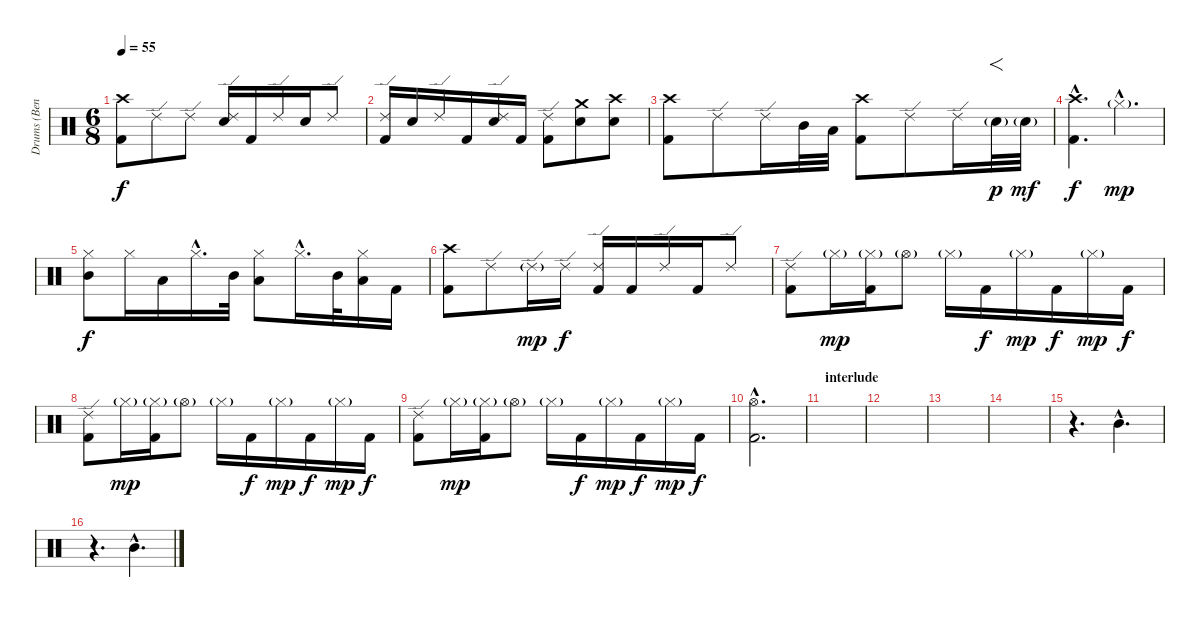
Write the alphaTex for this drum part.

\track ("Drums (Bengerg)" "Drums (Ben") {instrument percussion}
\staff {score}
\articulation defaults
\ts (6 8)
\tempo 55
\clef neutral
\ks c
("Crash high (hit)" "Kick (hit) 2").8{dy f} "Ride (edge) 2".8 "Ride (edge) 2".8 ("Ride (edge) 2" "Electric Snare (hit)").16 "Kick (hit) 2".16 "Ride (edge) 2".16 "Electric Snare (hit)".16 "Ride (edge) 2".8 |
("Ride (edge) 2" "Kick (hit) 2").16 "Electric Snare (hit)".16 "Ride (edge) 2".16 "Kick (hit) 2".16 ("Ride (edge) 2" "Electric Snare (hit)").16 "Kick (hit) 2".16 ("Ride (edge) 2" "Kick (hit) 2").8 ("Crash medium (hit)" "Electric Snare (hit)").8 ("Crash high (hit)" "Electric Snare (hit)").8 |
("Crash high (hit)" "Kick (hit) 2").8 "Ride (edge) 2".8 "Ride (edge) 2".16 "Mid Tom (hit)".32 "Low Tom (hit)".32 ("Crash high (hit)" "Kick (hit) 2").8 "Ride (edge) 2".8 "Ride (edge) 2".16 "Electric Snare (hit)"{g}.32{f dy p} "Electric Snare (hit)"{g}.32{dy mf} |
("Crash high (hit)"{hac} "Kick (hit) 2"{hac}).4{d dy f} "Hi-Hat (closed)"{g hac}.4{d dy mp} |
("Hi-Hat (closed)" "Mid Tom (hit)").8{dy f} "Hi-Hat (closed)".16 "Low Tom (hit)".16 "Hi-Hat (closed)"{hac}.16{d} "Mid Tom (hit)".32 ("Hi-Hat (closed)" "Low Tom (hit)").8 "Hi-Hat (closed)"{hac}.16{d} "Mid Tom (hit)".32 ("Hi-Hat (closed)" "Low Tom (hit)").16 "Kick (hit) 2".16 |
("Crash high (hit)" "Kick (hit) 2").8 "Ride (edge) 2".8 "Ride (edge) 2"{g}.16{dy mp} "Ride (edge) 2".16{dy f} ("Ride (edge) 2" "Kick (hit) 2").16 "Kick (hit) 2".16 "Ride (edge) 2".16 "Kick (hit) 2".16 "Ride (edge) 2".8 |
("Ride (edge) 2" "Kick (hit) 2").8 "Hi-Hat (closed)"{g}.16{dy mp} ("Hi-Hat (closed)"{g} "Kick (hit) 2").16 "Hi-Hat (open)"{g}.8 "Hi-Hat (closed)"{g}.16 "Kick (hit) 2".16{dy f} "Hi-Hat (closed)"{g}.16{dy mp} "Kick (hit) 2".16{dy f} "Hi-Hat (closed)"{g}.16{dy mp} "Kick (hit) 2".16{dy f} |
("Ride (edge) 2" "Kick (hit) 2").8 "Hi-Hat (closed)"{g}.16{dy mp} ("Hi-Hat (closed)"{g} "Kick (hit) 2").16 "Hi-Hat (open)"{g}.8 "Hi-Hat (closed)"{g}.16 "Kick (hit) 2".16{dy f} "Hi-Hat (closed)"{g}.16{dy mp} "Kick (hit) 2".16{dy f} "Hi-Hat (closed)"{g}.16{dy mp} "Kick (hit) 2".16{dy f} |
("Ride (edge) 2" "Kick (hit) 2").8 "Hi-Hat (closed)"{g}.16{dy mp} ("Hi-Hat (closed)"{g} "Kick (hit) 2").16 "Hi-Hat (open)"{g}.8 "Hi-Hat (closed)"{g}.16 "Kick (hit) 2".16{dy f} "Hi-Hat (closed)"{g}.16{dy mp} "Kick (hit) 2".16{dy f} "Hi-Hat (closed)"{g}.16{dy mp} "Kick (hit) 2".16{dy f} |
("Hi-Hat (open)"{hac} "Kick (hit) 2"{hac}).2{d} |
\section ("" "interlude")
|
|
|
|
r.4{d} "Mid Tom (hit)"{hac}.4{d} |
r.4{d} "Mid Tom (hit)"{hac}.4{d}
